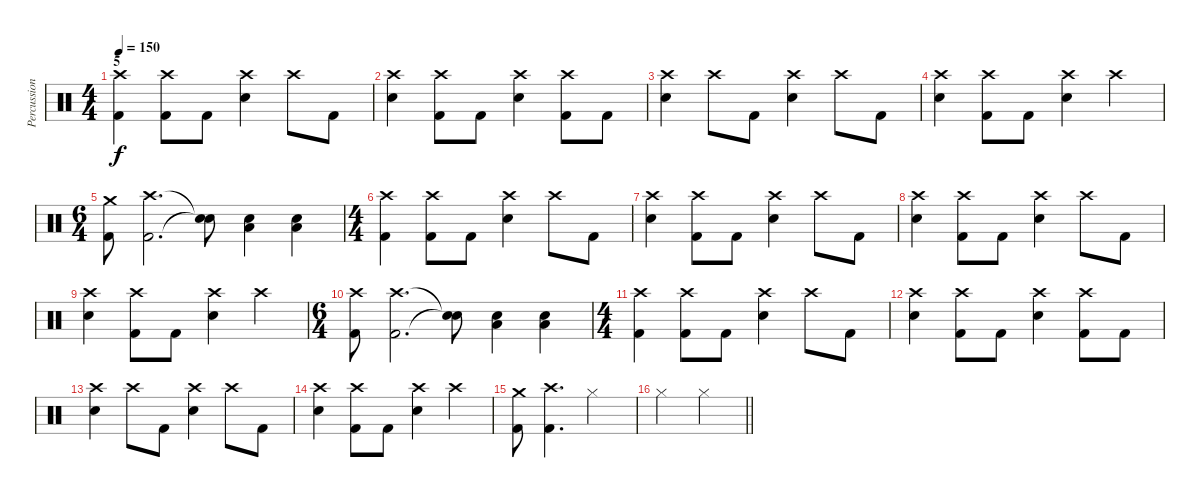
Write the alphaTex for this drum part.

\track ("Percussion" "Percussion") {instrument percussion}
\staff {score}
\articulation defaults
\ts (4 4)
\section ("" "5")
\tempo 150
\clef neutral
\ks c
("Crash high (hit)" "Kick (hit) 2").4{dy f} ("Crash high (hit)" "Kick (hit) 2").8 "Kick (hit) 2".8 ("Crash high (hit)" "Snare (hit) 2").4 "Crash high (hit)".8 "Kick (hit) 2".8 |
("Crash high (hit)" "Snare (hit) 2").4 ("Crash high (hit)" "Kick (hit) 2").8 "Kick (hit) 2".8 ("Crash high (hit)" "Snare (hit) 2").4 ("Crash high (hit)" "Kick (hit) 2").8 "Kick (hit) 2".8 |
("Crash high (hit)" "Snare (hit) 2").4 "Crash high (hit)".8 "Kick (hit) 2".8 ("Crash high (hit)" "Snare (hit) 2").4 "Crash high (hit)".8 "Kick (hit) 2".8 |
("Crash high (hit)" "Snare (hit) 2").4 ("Crash high (hit)" "Kick (hit) 2").8 "Kick (hit) 2".8 ("Crash high (hit)" "Snare (hit) 2").4 "Crash high (hit)".4 |
\ts (6 4)
("Crash medium (hit)" "Kick (hit) 2").8 ("Crash high (hit)" "Kick (hit) 2").2{d} ("Snare (hit)"{t} "Snare (hit)"{t}).8 ("Snare (hit) 2" "Low Floor Tom (hit)").4 ("Snare (hit) 2" "Low Floor Tom (hit)").4 |
\ts (4 4)
("Crash high (hit)" "Kick (hit) 2").4 ("Crash high (hit)" "Kick (hit) 2").8 "Kick (hit) 2".8 ("Crash high (hit)" "Snare (hit) 2").4 "Crash high (hit)".8 "Kick (hit) 2".8 |
("Crash high (hit)" "Snare (hit) 2").4 ("Crash high (hit)" "Kick (hit) 2").8 "Kick (hit) 2".8 ("Crash high (hit)" "Snare (hit) 2").4 "Crash high (hit)".8 "Kick (hit) 2".8 |
("Crash high (hit)" "Snare (hit) 2").4 ("Crash high (hit)" "Kick (hit) 2").8 "Kick (hit) 2".8 ("Crash high (hit)" "Snare (hit) 2").4 "Crash high (hit)".8 "Kick (hit) 2".8 |
("Crash high (hit)" "Snare (hit) 2").4 ("Crash high (hit)" "Kick (hit) 2").8 "Kick (hit) 2".8 ("Crash high (hit)" "Snare (hit) 2").4 "Crash high (hit)".4 |
\ts (6 4)
("Crash high (hit)" "Kick (hit) 2").8 ("Crash high (hit)" "Kick (hit) 2").2{d} ("Snare (hit)"{t} "Snare (hit)"{t}).8 ("Snare (hit) 2" "Low Floor Tom (hit)").4 ("Snare (hit) 2" "Low Floor Tom (hit)").4 |
\ts (4 4)
("Crash high (hit)" "Kick (hit) 2").4 ("Crash high (hit)" "Kick (hit) 2").8 "Kick (hit) 2".8 ("Crash high (hit)" "Snare (hit) 2").4 "Crash high (hit)".8 "Kick (hit) 2".8 |
("Crash high (hit)" "Snare (hit) 2").4 ("Crash high (hit)" "Kick (hit) 2").8 "Kick (hit) 2".8 ("Crash high (hit)" "Snare (hit) 2").4 ("Crash high (hit)" "Kick (hit) 2").8 "Kick (hit) 2".8 |
("Crash high (hit)" "Snare (hit) 2").4 "Crash high (hit)".8 "Kick (hit) 2".8 ("Crash high (hit)" "Snare (hit) 2").4 "Crash high (hit)".8 "Kick (hit) 2".8 |
("Crash high (hit)" "Snare (hit) 2").4 ("Crash high (hit)" "Kick (hit) 2").8 "Kick (hit) 2".8 ("Crash high (hit)" "Snare (hit) 2").4 "Crash high (hit)".4 |
("Crash medium (hit)" "Kick (hit) 2").8 ("Crash high (hit)" "Kick (hit) 2").4{d} "Hi-Hat (closed)".2 |
\barLineRight lightlight "Hi-Hat (closed)".2 "Hi-Hat (closed)".2
